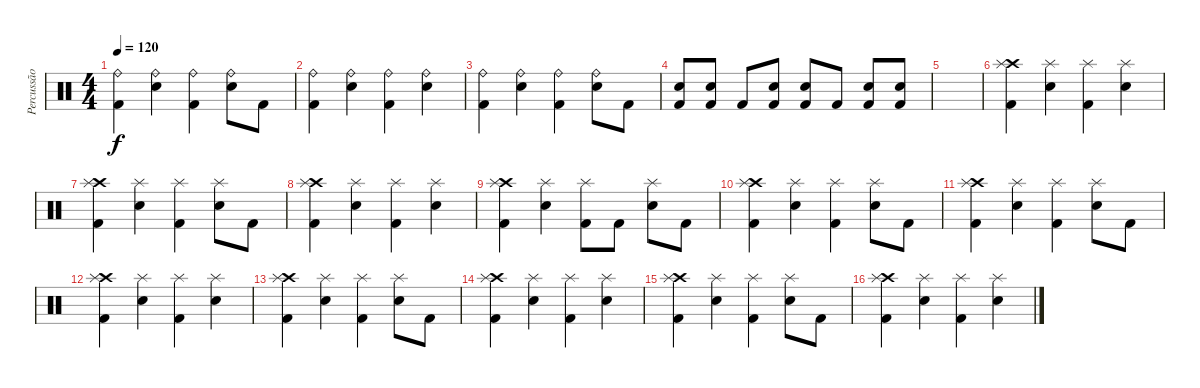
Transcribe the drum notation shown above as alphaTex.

\track ("Percussão" "Percussão") {instrument percussion}
\staff {score}
\articulation defaults
\ts (4 4)
\tempo 120
\clef neutral
\ks c
("Ride (bell)" "Kick (hit) 2").4{dy f} ("Ride (bell)" "Snare (hit) 2").4 ("Ride (bell)" "Kick (hit) 2").4 ("Ride (bell)" "Snare (hit) 2").8 "Kick (hit) 2".8 |
("Ride (bell)" "Kick (hit) 2").4 ("Ride (bell)" "Snare (hit) 2").4 ("Ride (bell)" "Kick (hit) 2").4 ("Ride (bell)" "Snare (hit) 2").4 |
("Ride (bell)" "Kick (hit) 2").4 ("Ride (bell)" "Snare (hit) 2").4 ("Ride (bell)" "Kick (hit) 2").4 ("Ride (bell)" "Snare (hit) 2").8 "Kick (hit) 2".8 |
("Snare (hit) 2" "Kick (hit) 2").8 ("Snare (hit) 2" "Kick (hit) 2").8 "Kick (hit) 2".8 ("Snare (hit) 2" "Kick (hit) 2").8 ("Snare (hit) 2" "Kick (hit) 2").8 "Kick (hit) 2".8 ("Snare (hit) 2" "Kick (hit) 2").8 ("Snare (hit) 2" "Kick (hit) 2").8 |
|
("Crash high (hit)" "Splash (hit)" "Kick (hit) 2").4 ("Splash (hit)" "Snare (hit) 2").4 ("Splash (hit)" "Kick (hit) 2").4 ("Splash (hit)" "Snare (hit) 2").4 |
("Crash high (hit)" "Splash (hit)" "Kick (hit) 2").4 ("Splash (hit)" "Snare (hit) 2").4 ("Splash (hit)" "Kick (hit) 2").4 ("Splash (hit)" "Snare (hit) 2").8 "Kick (hit) 2".8 |
("Crash high (hit)" "Splash (hit)" "Kick (hit) 2").4 ("Splash (hit)" "Snare (hit) 2").4 ("Splash (hit)" "Kick (hit) 2").4 ("Splash (hit)" "Snare (hit) 2").4 |
("Crash high (hit)" "Splash (hit)" "Kick (hit) 2").4 ("Splash (hit)" "Snare (hit) 2").4 ("Splash (hit)" "Kick (hit) 2").8 "Kick (hit) 2".8 ("Splash (hit)" "Snare (hit) 2").8 "Kick (hit) 2".8 |
("Crash high (hit)" "Splash (hit)" "Kick (hit) 2").4 ("Splash (hit)" "Snare (hit) 2").4 ("Splash (hit)" "Kick (hit) 2").4 ("Splash (hit)" "Snare (hit) 2").8 "Kick (hit) 2".8 |
("Crash high (hit)" "Splash (hit)" "Kick (hit) 2").4 ("Splash (hit)" "Snare (hit) 2").4 ("Splash (hit)" "Kick (hit) 2").4 ("Splash (hit)" "Snare (hit) 2").8 "Kick (hit) 2".8 |
("Crash high (hit)" "Splash (hit)" "Kick (hit) 2").4 ("Splash (hit)" "Snare (hit) 2").4 ("Splash (hit)" "Kick (hit) 2").4 ("Splash (hit)" "Snare (hit) 2").4 |
("Crash high (hit)" "Splash (hit)" "Kick (hit) 2").4 ("Splash (hit)" "Snare (hit) 2").4 ("Splash (hit)" "Kick (hit) 2").4 ("Splash (hit)" "Snare (hit) 2").8 "Kick (hit) 2".8 |
("Crash high (hit)" "Splash (hit)" "Kick (hit) 2").4 ("Splash (hit)" "Snare (hit) 2").4 ("Splash (hit)" "Kick (hit) 2").4 ("Splash (hit)" "Snare (hit) 2").4 |
("Crash high (hit)" "Splash (hit)" "Kick (hit) 2").4 ("Splash (hit)" "Snare (hit) 2").4 ("Splash (hit)" "Kick (hit) 2").4 ("Splash (hit)" "Snare (hit) 2").8 "Kick (hit) 2".8 |
("Crash high (hit)" "Splash (hit)" "Kick (hit) 2").4 ("Splash (hit)" "Snare (hit) 2").4 ("Splash (hit)" "Kick (hit) 2").4 ("Splash (hit)" "Snare (hit) 2").4
